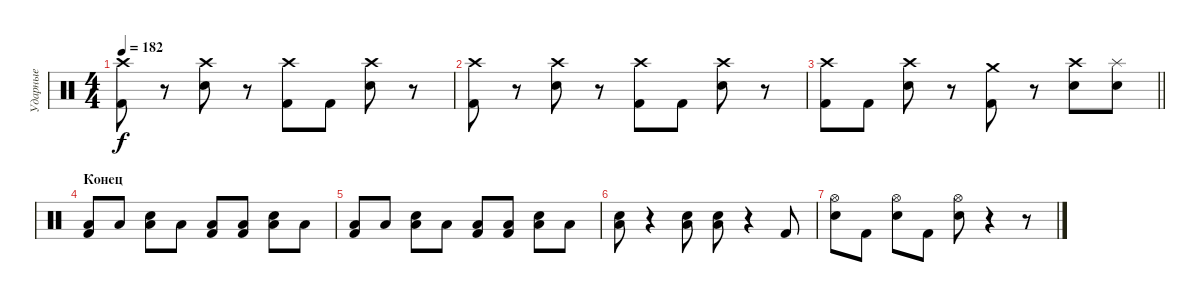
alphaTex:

\track ("Ударные" "Ударные") {instrument percussion}
\staff {score}
\articulation defaults
\ts (4 4)
\tempo 182
\clef neutral
\ks c
("Crash high (hit)" "Kick (hit) 2").8{dy f} r.8 ("Crash high (hit)" "Snare (hit) 2").8 r.8 ("Crash high (hit)" "Kick (hit) 2").8 "Kick (hit) 2".8 ("Crash high (hit)" "Snare (hit) 2").8 r.8 |
("Crash high (hit)" "Kick (hit) 2").8 r.8 ("Crash high (hit)" "Snare (hit) 2").8 r.8 ("Crash high (hit)" "Kick (hit) 2").8 "Kick (hit) 2".8 ("Crash high (hit)" "Snare (hit) 2").8 r.8 |
\barLineRight lightlight
("Crash high (hit)" "Kick (hit) 2").8 "Kick (hit) 2".8 ("Crash high (hit)" "Snare (hit) 2").8 r.8 ("Crash medium (hit)" "Kick (hit) 2").8 r.8 ("Crash high (hit)" "Snare (hit) 2").8 ("Splash (hit)" "Snare (hit) 2").8 |
\section ("" "Конец")
("Low Floor Tom (hit)" "Kick (hit) 2").8 "Low Floor Tom (hit)".8 ("Low Floor Tom (hit)" "Snare (hit) 2").8 "Low Floor Tom (hit)".8 ("Low Floor Tom (hit)" "Kick (hit) 2").8 ("Low Floor Tom (hit)" "Kick (hit) 2").8 ("Low Floor Tom (hit)" "Snare (hit) 2").8 "Low Floor Tom (hit)".8 |
("Low Floor Tom (hit)" "Kick (hit) 2").8 "Low Floor Tom (hit)".8 ("Low Floor Tom (hit)" "Snare (hit) 2").8 "Low Floor Tom (hit)".8 ("Low Floor Tom (hit)" "Kick (hit) 2").8 ("Low Floor Tom (hit)" "Kick (hit) 2").8 ("Low Floor Tom (hit)" "Snare (hit) 2").8 "Low Floor Tom (hit)".8 |
("Low Floor Tom (hit)" "Snare (hit) 2").8 r.4 ("Low Floor Tom (hit)" "Snare (hit) 2").8 ("Low Floor Tom (hit)" "Snare (hit) 2").8 r.4 "Kick (hit) 2".8 |
("Hi-Hat (open)" "Snare (hit) 2").8 "Kick (hit) 2".8 ("Hi-Hat (open)" "Snare (hit) 2").8 "Kick (hit) 2".8 ("Hi-Hat (open)" "Snare (hit) 2").8 r.4 r.8
